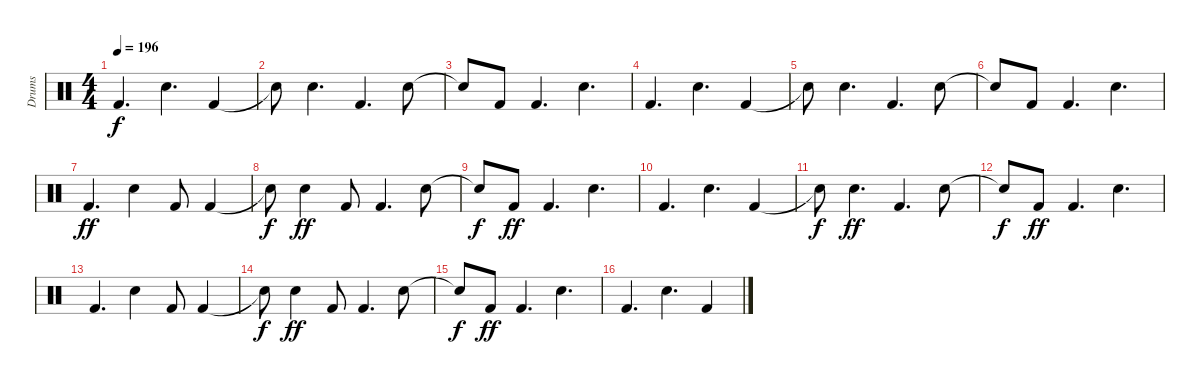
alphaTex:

\track ("Drums" "Drums") {instrument percussion}
\staff {score}
\articulation defaults
\ts (4 4)
\tempo 196
\clef neutral
\ks c "Kick (hit) 2".4{d dy f} "Electric Snare (hit)".4{d} "Kick (hit) 2".4
|
"Snare (hit)"{t}.8 "Electric Snare (hit)".4{d} "Kick (hit) 2".4{d} "Electric Snare (hit)".8 |
"Snare (hit)"{t}.8 "Kick (hit) 2".8 "Kick (hit) 2".4{d} "Electric Snare (hit)".4{d} |
"Kick (hit) 2".4{d} "Electric Snare (hit)".4{d} "Kick (hit) 2".4 |
"Snare (hit)"{t}.8 "Electric Snare (hit)".4{d} "Kick (hit) 2".4{d} "Electric Snare (hit)".8 |
"Snare (hit)"{t}.8 "Kick (hit) 2".8 "Kick (hit) 2".4{d} "Electric Snare (hit)".4{d} |
"Kick (hit) 2".4{d dy ff} "Electric Snare (hit)".4 "Kick (hit) 2".8 "Kick (hit) 2".4 |
"Snare (hit)"{t}.8{dy f} "Electric Snare (hit)".4{dy ff} "Kick (hit) 2".8 "Kick (hit) 2".4{d} "Electric Snare (hit)".8 |
"Snare (hit)"{t}.8{dy f} "Kick (hit) 2".8{dy ff} "Kick (hit) 2".4{d} "Electric Snare (hit)".4{d} |
"Kick (hit) 2".4{d} "Electric Snare (hit)".4{d} "Kick (hit) 2".4 |
"Snare (hit)"{t}.8{dy f} "Electric Snare (hit)".4{d dy ff} "Kick (hit) 2".4{d} "Electric Snare (hit)".8 |
"Snare (hit)"{t}.8{dy f} "Kick (hit) 2".8{dy ff} "Kick (hit) 2".4{d} "Electric Snare (hit)".4{d} |
"Kick (hit) 2".4{d} "Electric Snare (hit)".4 "Kick (hit) 2".8 "Kick (hit) 2".4 |
"Snare (hit)"{t}.8{dy f} "Electric Snare (hit)".4{dy ff} "Kick (hit) 2".8 "Kick (hit) 2".4{d} "Electric Snare (hit)".8 |
"Snare (hit)"{t}.8{dy f} "Kick (hit) 2".8{dy ff} "Kick (hit) 2".4{d} "Electric Snare (hit)".4{d} |
"Kick (hit) 2".4{d} "Electric Snare (hit)".4{d} "Kick (hit) 2".4
